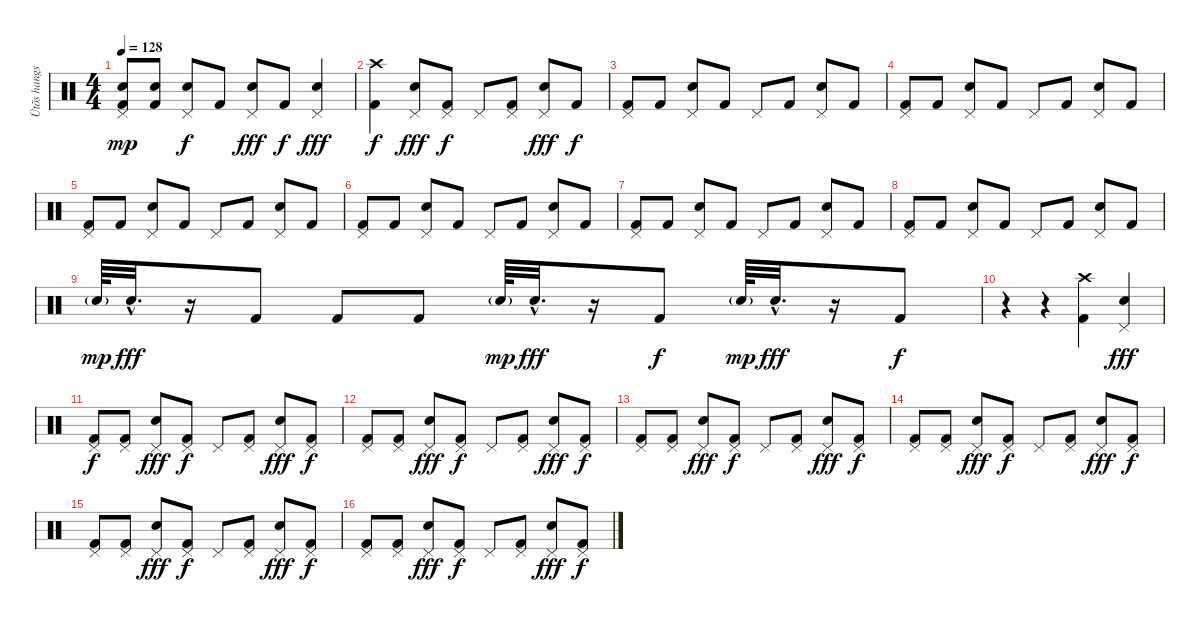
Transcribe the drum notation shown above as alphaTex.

\track ("Ütõs hangszer" "Ütõs hangs") {instrument percussion}
\staff {score}
\articulation defaults
\ts (4 4)
\tempo 128
\clef neutral
\ks c
("Electric Snare (hit)" "Kick (hit) 2" "Pedal Hi-Hat (hit)").8{dy mp} ("Electric Snare (hit)"{tr (40 16)} "Kick (hit) 2").8 ("Electric Snare (hit)" "Pedal Hi-Hat (hit)").8{dy f} "Kick (hit) 2".8 ("Electric Snare (hit)" "Pedal Hi-Hat (hit)").8{dy fff} "Kick (hit) 2".8{dy f} ("Electric Snare (hit)"{tr (40 16)} "Pedal Hi-Hat (hit)").4{dy fff} |
("Kick (hit) 2" "Crash high (hit)").4{dy f} ("Electric Snare (hit)" "Pedal Hi-Hat (hit)").8{dy fff} ("Kick (hit) 2" "Pedal Hi-Hat (hit)").8{dy f} "Pedal Hi-Hat (hit)".8 ("Kick (hit) 2" "Pedal Hi-Hat (hit)").8 ("Electric Snare (hit)" "Pedal Hi-Hat (hit)").8{dy fff} "Kick (hit) 2".8{dy f} |
("Kick (hit) 2" "Pedal Hi-Hat (hit)").8 "Kick (hit) 2".8 ("Electric Snare (hit)" "Pedal Hi-Hat (hit)").8 "Kick (hit) 2".8 "Pedal Hi-Hat (hit)".8 "Kick (hit) 2".8 ("Electric Snare (hit)" "Pedal Hi-Hat (hit)").8 "Kick (hit) 2".8 |
("Kick (hit) 2" "Pedal Hi-Hat (hit)").8 "Kick (hit) 2".8 ("Electric Snare (hit)" "Pedal Hi-Hat (hit)").8 "Kick (hit) 2".8 "Pedal Hi-Hat (hit)".8 "Kick (hit) 2".8 ("Electric Snare (hit)" "Pedal Hi-Hat (hit)").8 "Kick (hit) 2".8 |
("Kick (hit) 2" "Pedal Hi-Hat (hit)").8 "Kick (hit) 2".8 ("Electric Snare (hit)" "Pedal Hi-Hat (hit)").8 "Kick (hit) 2".8 "Pedal Hi-Hat (hit)".8 "Kick (hit) 2".8 ("Electric Snare (hit)" "Pedal Hi-Hat (hit)").8 "Kick (hit) 2".8 |
("Kick (hit) 2" "Pedal Hi-Hat (hit)").8 "Kick (hit) 2".8 ("Electric Snare (hit)" "Pedal Hi-Hat (hit)").8 "Kick (hit) 2".8 "Pedal Hi-Hat (hit)".8 "Kick (hit) 2".8 ("Electric Snare (hit)" "Pedal Hi-Hat (hit)").8 "Kick (hit) 2".8 |
("Kick (hit) 2" "Pedal Hi-Hat (hit)").8 "Kick (hit) 2".8 ("Electric Snare (hit)" "Pedal Hi-Hat (hit)").8 "Kick (hit) 2".8 "Pedal Hi-Hat (hit)".8 "Kick (hit) 2".8 ("Electric Snare (hit)" "Pedal Hi-Hat (hit)").8 "Kick (hit) 2".8 |
("Kick (hit) 2" "Pedal Hi-Hat (hit)").8 "Kick (hit) 2".8 ("Electric Snare (hit)" "Pedal Hi-Hat (hit)").8 "Kick (hit) 2".8 "Pedal Hi-Hat (hit)".8 "Kick (hit) 2".8 ("Electric Snare (hit)" "Pedal Hi-Hat (hit)").8 "Kick (hit) 2".8 |
"Electric Snare (hit)"{g}.64{dy mp} "Electric Snare (hit)"{hac}.32{d dy fff} r.16 "Kick (hit) 2".8 "Kick (hit) 2".8 "Kick (hit) 2".8 "Electric Snare (hit)"{g}.64{dy mp} "Electric Snare (hit)"{hac}.32{d dy fff} r.16 "Kick (hit) 2".8{dy f} "Electric Snare (hit)"{g}.64{dy mp} "Electric Snare (hit)"{hac}.32{d dy fff} r.16 "Kick (hit) 2".8{dy f} |
r.4 r.4 ("Kick (hit) 2" "Crash high (hit)").4 ("Electric Snare (hit)" "Pedal Hi-Hat (hit)").4{dy fff} |
("Kick (hit) 2" "Pedal Hi-Hat (hit)").8{dy f} ("Kick (hit) 2" "Pedal Hi-Hat (hit)").8 ("Electric Snare (hit)" "Pedal Hi-Hat (hit)").8{dy fff} ("Kick (hit) 2" "Pedal Hi-Hat (hit)").8{dy f} "Pedal Hi-Hat (hit)".8 ("Kick (hit) 2" "Pedal Hi-Hat (hit)").8 ("Electric Snare (hit)" "Pedal Hi-Hat (hit)").8{dy fff} ("Kick (hit) 2" "Pedal Hi-Hat (hit)").8{dy f} |
("Kick (hit) 2" "Pedal Hi-Hat (hit)").8 ("Kick (hit) 2" "Pedal Hi-Hat (hit)").8 ("Electric Snare (hit)" "Pedal Hi-Hat (hit)").8{dy fff} ("Kick (hit) 2" "Pedal Hi-Hat (hit)").8{dy f} "Pedal Hi-Hat (hit)".8 ("Kick (hit) 2" "Pedal Hi-Hat (hit)").8 ("Electric Snare (hit)" "Pedal Hi-Hat (hit)").8{dy fff} ("Kick (hit) 2" "Pedal Hi-Hat (hit)").8{dy f} |
("Kick (hit) 2" "Pedal Hi-Hat (hit)").8 ("Kick (hit) 2" "Pedal Hi-Hat (hit)").8 ("Electric Snare (hit)" "Pedal Hi-Hat (hit)").8{dy fff} ("Kick (hit) 2" "Pedal Hi-Hat (hit)").8{dy f} "Pedal Hi-Hat (hit)".8 ("Kick (hit) 2" "Pedal Hi-Hat (hit)").8 ("Electric Snare (hit)" "Pedal Hi-Hat (hit)").8{dy fff} ("Kick (hit) 2" "Pedal Hi-Hat (hit)").8{dy f} |
("Kick (hit) 2" "Pedal Hi-Hat (hit)").8 ("Kick (hit) 2" "Pedal Hi-Hat (hit)").8 ("Electric Snare (hit)" "Pedal Hi-Hat (hit)").8{dy fff} ("Kick (hit) 2" "Pedal Hi-Hat (hit)").8{dy f} "Pedal Hi-Hat (hit)".8 ("Kick (hit) 2" "Pedal Hi-Hat (hit)").8 ("Electric Snare (hit)" "Pedal Hi-Hat (hit)").8{dy fff} ("Kick (hit) 2" "Pedal Hi-Hat (hit)").8{dy f} |
("Kick (hit) 2" "Pedal Hi-Hat (hit)").8 ("Kick (hit) 2" "Pedal Hi-Hat (hit)").8 ("Electric Snare (hit)" "Pedal Hi-Hat (hit)").8{dy fff} ("Kick (hit) 2" "Pedal Hi-Hat (hit)").8{dy f} "Pedal Hi-Hat (hit)".8 ("Kick (hit) 2" "Pedal Hi-Hat (hit)").8 ("Electric Snare (hit)" "Pedal Hi-Hat (hit)").8{dy fff} ("Kick (hit) 2" "Pedal Hi-Hat (hit)").8{dy f} |
("Kick (hit) 2" "Pedal Hi-Hat (hit)").8 ("Kick (hit) 2" "Pedal Hi-Hat (hit)").8 ("Electric Snare (hit)" "Pedal Hi-Hat (hit)").8{dy fff} ("Kick (hit) 2" "Pedal Hi-Hat (hit)").8{dy f} "Pedal Hi-Hat (hit)".8 ("Kick (hit) 2" "Pedal Hi-Hat (hit)").8 ("Electric Snare (hit)" "Pedal Hi-Hat (hit)").8{dy fff} ("Kick (hit) 2" "Pedal Hi-Hat (hit)").8{dy f}
